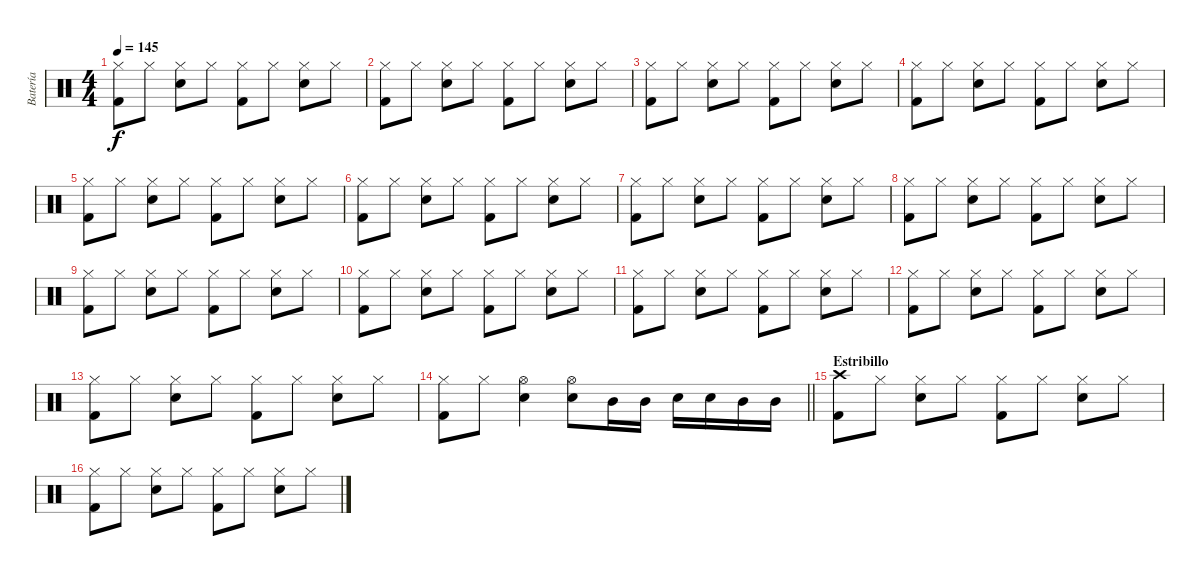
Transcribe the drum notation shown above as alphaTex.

\track ("Batería" "Batería") {instrument percussion}
\staff {score}
\articulation defaults
\ts (4 4)
\tempo 145
\clef neutral
\ks c
("Hi-Hat (closed)" "Kick (hit) 2").8{dy f} "Hi-Hat (closed)".8 ("Hi-Hat (closed)" "Snare (hit) 2").8 "Hi-Hat (closed)".8 ("Hi-Hat (closed)" "Kick (hit) 2").8 "Hi-Hat (closed)".8 ("Hi-Hat (closed)" "Snare (hit) 2").8 "Hi-Hat (closed)".8 |
("Hi-Hat (closed)" "Kick (hit) 2").8 "Hi-Hat (closed)".8 ("Hi-Hat (closed)" "Snare (hit) 2").8 "Hi-Hat (closed)".8 ("Hi-Hat (closed)" "Kick (hit) 2").8 "Hi-Hat (closed)".8 ("Hi-Hat (closed)" "Snare (hit) 2").8 "Hi-Hat (closed)".8 |
("Hi-Hat (closed)" "Kick (hit) 2").8 "Hi-Hat (closed)".8 ("Hi-Hat (closed)" "Snare (hit) 2").8 "Hi-Hat (closed)".8 ("Hi-Hat (closed)" "Kick (hit) 2").8 "Hi-Hat (closed)".8 ("Hi-Hat (closed)" "Snare (hit) 2").8 "Hi-Hat (closed)".8 |
("Hi-Hat (closed)" "Kick (hit) 2").8 "Hi-Hat (closed)".8 ("Hi-Hat (closed)" "Snare (hit) 2").8 "Hi-Hat (closed)".8 ("Hi-Hat (closed)" "Kick (hit) 2").8 "Hi-Hat (closed)".8 ("Hi-Hat (closed)" "Snare (hit) 2").8 "Hi-Hat (closed)".8 |
("Hi-Hat (closed)" "Kick (hit) 2").8 "Hi-Hat (closed)".8 ("Hi-Hat (closed)" "Snare (hit) 2").8 "Hi-Hat (closed)".8 ("Hi-Hat (closed)" "Kick (hit) 2").8 "Hi-Hat (closed)".8 ("Hi-Hat (closed)" "Snare (hit) 2").8 "Hi-Hat (closed)".8 |
("Hi-Hat (closed)" "Kick (hit) 2").8 "Hi-Hat (closed)".8 ("Hi-Hat (closed)" "Snare (hit) 2").8 "Hi-Hat (closed)".8 ("Hi-Hat (closed)" "Kick (hit) 2").8 "Hi-Hat (closed)".8 ("Hi-Hat (closed)" "Snare (hit) 2").8 "Hi-Hat (closed)".8 |
("Hi-Hat (closed)" "Kick (hit) 2").8 "Hi-Hat (closed)".8 ("Hi-Hat (closed)" "Snare (hit) 2").8 "Hi-Hat (closed)".8 ("Hi-Hat (closed)" "Kick (hit) 2").8 "Hi-Hat (closed)".8 ("Hi-Hat (closed)" "Snare (hit) 2").8 "Hi-Hat (closed)".8 |
("Hi-Hat (closed)" "Kick (hit) 2").8 "Hi-Hat (closed)".8 ("Hi-Hat (closed)" "Snare (hit) 2").8 "Hi-Hat (closed)".8 ("Hi-Hat (closed)" "Kick (hit) 2").8 "Hi-Hat (closed)".8 ("Hi-Hat (closed)" "Snare (hit) 2").8 "Hi-Hat (closed)".8 |
("Hi-Hat (closed)" "Kick (hit) 2").8 "Hi-Hat (closed)".8 ("Hi-Hat (closed)" "Snare (hit) 2").8 "Hi-Hat (closed)".8 ("Hi-Hat (closed)" "Kick (hit) 2").8 "Hi-Hat (closed)".8 ("Hi-Hat (closed)" "Snare (hit) 2").8 "Hi-Hat (closed)".8 |
("Hi-Hat (closed)" "Kick (hit) 2").8 "Hi-Hat (closed)".8 ("Hi-Hat (closed)" "Snare (hit) 2").8 "Hi-Hat (closed)".8 ("Hi-Hat (closed)" "Kick (hit) 2").8 "Hi-Hat (closed)".8 ("Hi-Hat (closed)" "Snare (hit) 2").8 "Hi-Hat (closed)".8 |
("Hi-Hat (closed)" "Kick (hit) 2").8 "Hi-Hat (closed)".8 ("Hi-Hat (closed)" "Snare (hit) 2").8 "Hi-Hat (closed)".8 ("Hi-Hat (closed)" "Kick (hit) 2").8 "Hi-Hat (closed)".8 ("Hi-Hat (closed)" "Snare (hit) 2").8 "Hi-Hat (closed)".8 |
("Hi-Hat (closed)" "Kick (hit) 2").8 "Hi-Hat (closed)".8 ("Hi-Hat (closed)" "Snare (hit) 2").8 "Hi-Hat (closed)".8 ("Hi-Hat (closed)" "Kick (hit) 2").8 "Hi-Hat (closed)".8 ("Hi-Hat (closed)" "Snare (hit) 2").8 "Hi-Hat (closed)".8 |
("Hi-Hat (closed)" "Kick (hit) 2").8 "Hi-Hat (closed)".8 ("Hi-Hat (closed)" "Snare (hit) 2").8 "Hi-Hat (closed)".8 ("Hi-Hat (closed)" "Kick (hit) 2").8 "Hi-Hat (closed)".8 ("Hi-Hat (closed)" "Snare (hit) 2").8 "Hi-Hat (closed)".8 |
\barLineRight lightlight
("Hi-Hat (closed)" "Kick (hit) 2").8 "Hi-Hat (closed)".8 ("Hi-Hat (open)" "Snare (hit) 2").4 ("Hi-Hat (open)" "Snare (hit) 2").8 "Mid Tom (hit)".16 "Mid Tom (hit)".16 "Snare (hit) 2".16 "Snare (hit) 2".16 "Mid Tom (hit)".16 "Mid Tom (hit)".16 |
\section ("" "Estribillo")
("Crash high (hit)" "Kick (hit) 2").8 "Hi-Hat (closed)".8 ("Hi-Hat (closed)" "Snare (hit) 2").8 "Hi-Hat (closed)".8 ("Hi-Hat (closed)" "Kick (hit) 2").8 "Hi-Hat (closed)".8 ("Hi-Hat (closed)" "Snare (hit) 2").8 "Hi-Hat (closed)".8 |
("Hi-Hat (closed)" "Kick (hit) 2").8 "Hi-Hat (closed)".8 ("Hi-Hat (closed)" "Snare (hit) 2").8 "Hi-Hat (closed)".8 ("Hi-Hat (closed)" "Kick (hit) 2").8 "Hi-Hat (closed)".8 ("Hi-Hat (closed)" "Snare (hit) 2").8 "Hi-Hat (closed)".8
